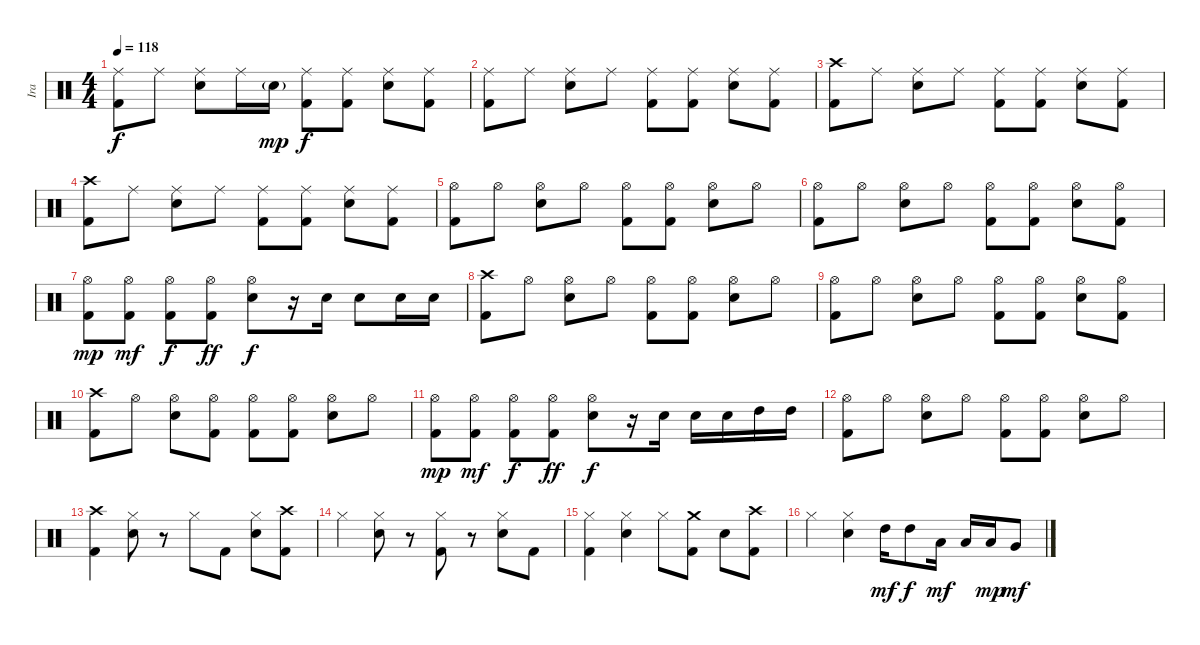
\track ("Ira" "Ira") {instrument percussion}
\staff {score}
\articulation defaults
\ts (4 4)
\tempo 118
\clef neutral
\ks c
("Ride (middle)" "Kick (hit) 2").8{dy f} "Ride (middle)".8 ("Ride (middle)" "Electric Snare (hit)").8 "Ride (middle)".16 "Electric Snare (hit)"{g}.16{dy mp} ("Ride (middle)" "Kick (hit) 2").8{dy f} ("Ride (middle)" "Kick (hit) 2").8 ("Ride (middle)" "Electric Snare (hit)").8 ("Ride (middle)" "Kick (hit) 2").8 |
("Ride (middle)" "Kick (hit) 2").8 "Ride (middle)".8 ("Ride (middle)" "Electric Snare (hit)").8 "Ride (middle)".8 ("Ride (middle)" "Kick (hit) 2").8 ("Ride (middle)" "Kick (hit) 2").8 ("Ride (middle)" "Electric Snare (hit)").8 ("Ride (middle)" "Kick (hit) 2").8 |
("Crash high (hit)" "Kick (hit) 2").8 "Ride (middle)".8 ("Ride (middle)" "Electric Snare (hit)").8 "Ride (middle)".8 ("Ride (middle)" "Kick (hit) 2").8 ("Ride (middle)" "Kick (hit) 2").8 ("Ride (middle)" "Electric Snare (hit)").8 ("Ride (middle)" "Kick (hit) 2").8 |
("Crash high (hit)" "Kick (hit) 2").8 "Ride (middle)".8 ("Ride (middle)" "Electric Snare (hit)").8 "Ride (middle)".8 ("Ride (middle)" "Kick (hit) 2").8 ("Ride (middle)" "Kick (hit) 2").8 ("Ride (middle)" "Electric Snare (hit)").8 ("Ride (middle)" "Kick (hit) 2").8 |
("Hi-Hat (open)" "Kick (hit) 2").8 "Hi-Hat (open)".8 ("Hi-Hat (open)" "Electric Snare (hit)").8 "Hi-Hat (open)".8 ("Hi-Hat (open)" "Kick (hit) 2").8 ("Hi-Hat (open)" "Kick (hit) 2").8 ("Hi-Hat (open)" "Electric Snare (hit)").8 "Hi-Hat (open)".8 |
("Hi-Hat (open)" "Kick (hit) 2").8 "Hi-Hat (open)".8 ("Hi-Hat (open)" "Electric Snare (hit)").8 "Hi-Hat (open)".8 ("Hi-Hat (open)" "Kick (hit) 2").8 ("Hi-Hat (open)" "Kick (hit) 2").8 ("Hi-Hat (open)" "Electric Snare (hit)").8 ("Hi-Hat (open)" "Kick (hit) 2").8 |
("Hi-Hat (open)" "Kick (hit) 2").8{dy mp} ("Hi-Hat (open)" "Kick (hit) 2").8{dy mf} ("Hi-Hat (open)" "Kick (hit) 2").8{dy f} ("Hi-Hat (open)" "Kick (hit) 2").8{dy ff} ("Hi-Hat (open)" "Electric Snare (hit)").8{dy f} r.16 "Electric Snare (hit)".16 "Electric Snare (hit)".8 "Electric Snare (hit)".16 "Electric Snare (hit)".16 |
("Crash high (hit)" "Kick (hit) 2").8 "Hi-Hat (open)".8 ("Hi-Hat (open)" "Electric Snare (hit)").8 "Hi-Hat (open)".8 ("Hi-Hat (open)" "Kick (hit) 2").8 ("Hi-Hat (open)" "Kick (hit) 2").8 ("Hi-Hat (open)" "Electric Snare (hit)").8 "Hi-Hat (open)".8 |
("Hi-Hat (open)" "Kick (hit) 2").8 "Hi-Hat (open)".8 ("Hi-Hat (open)" "Electric Snare (hit)").8 "Hi-Hat (open)".8 ("Hi-Hat (open)" "Kick (hit) 2").8 ("Hi-Hat (open)" "Kick (hit) 2").8 ("Hi-Hat (open)" "Electric Snare (hit)").8 ("Hi-Hat (open)" "Kick (hit) 2").8 |
("Crash high (hit)" "Kick (hit) 2").8 "Hi-Hat (open)".8 ("Hi-Hat (open)" "Electric Snare (hit)").8 ("Hi-Hat (open)" "Kick (hit) 2").8 ("Hi-Hat (open)" "Kick (hit) 2").8 ("Hi-Hat (open)" "Kick (hit) 2").8 ("Hi-Hat (open)" "Electric Snare (hit)").8 "Hi-Hat (open)".8 |
("Hi-Hat (open)" "Kick (hit) 2").8{dy mp} ("Hi-Hat (open)" "Kick (hit) 2").8{dy mf} ("Hi-Hat (open)" "Kick (hit) 2").8{dy f} ("Hi-Hat (open)" "Kick (hit) 2").8{dy ff} ("Hi-Hat (open)" "Electric Snare (hit)").8{dy f} r.16 "Electric Snare (hit)".16 "Electric Snare (hit)".16 "Electric Snare (hit)".16 "High Tom (hit)".16 "High Tom (hit)".16 |
("Hi-Hat (open)" "Kick (hit) 2").8 "Hi-Hat (open)".8 ("Hi-Hat (open)" "Electric Snare (hit)").8 "Hi-Hat (open)".8 ("Hi-Hat (open)" "Kick (hit) 2").8 ("Hi-Hat (open)" "Kick (hit) 2").8 ("Hi-Hat (open)" "Electric Snare (hit)").8 "Hi-Hat (open)".8 |
("Crash high (hit)" "Kick (hit) 2").4 ("Hi-Hat (closed)" "Electric Snare (hit)").8 r.8 "Hi-Hat (closed)".8 "Kick (hit) 2".8 ("Hi-Hat (closed)" "Electric Snare (hit)").8 ("Crash high (hit)" "Kick (hit) 2").8 |
"Hi-Hat (closed)".4 ("Hi-Hat (closed)" "Electric Snare (hit)").8 r.8 ("Hi-Hat (closed)" "Kick (hit) 2").8 r.8 ("Hi-Hat (closed)" "Electric Snare (hit)").8 "Kick (hit) 2".8 |
("Hi-Hat (closed)" "Kick (hit) 2").4 ("Hi-Hat (closed)" "Electric Snare (hit)").4 "Hi-Hat (closed)".8 ("Crash medium (hit)" "Kick (hit) 2").8 "Electric Snare (hit)".8 ("Crash high (hit)" "Kick (hit) 2").8 |
"Hi-Hat (closed)".4 ("Hi-Hat (closed)" "Electric Snare (hit)").4 "High Tom (hit)".16{dy mf} "High Tom (hit)".8{dy f} "Low Tom (hit)".16{dy mf} "Low Tom (hit)".16 "Low Tom (hit)".16{dy mp} "Very Low Tom (hit)".8{dy mf}
